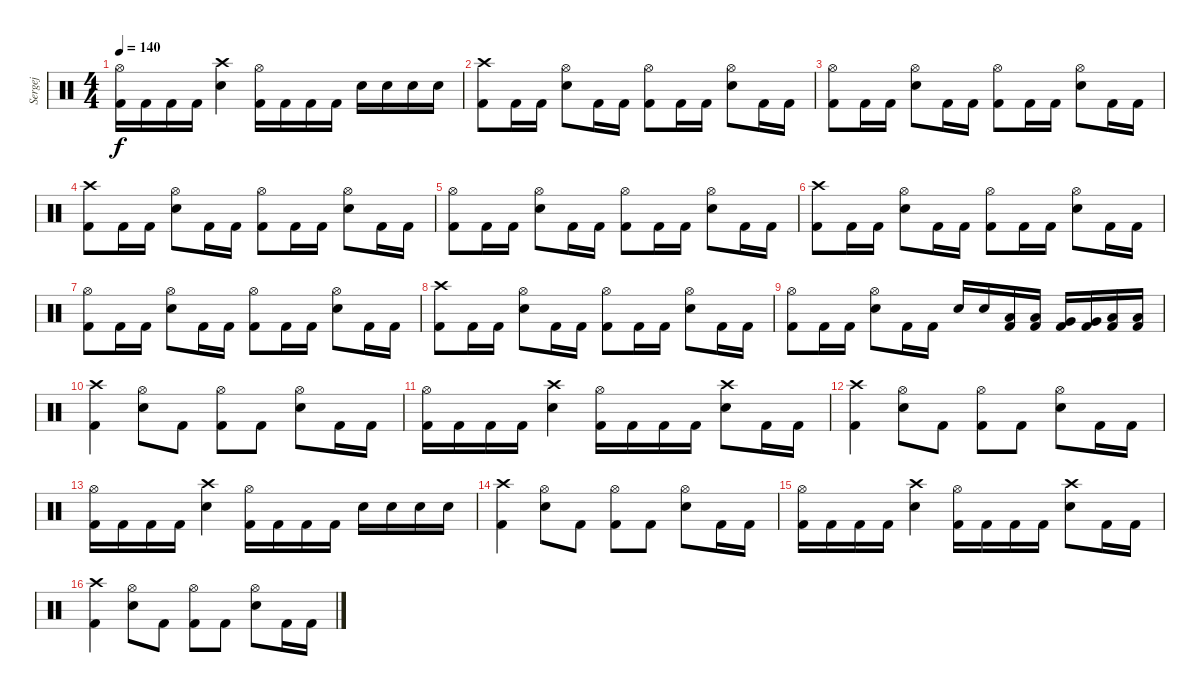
\track ("Sergej" "Sergej") {instrument percussion}
\staff {score}
\articulation defaults
\ts (4 4)
\tempo 140
\clef neutral
\ks c
("Hi-Hat (open)" "Kick (hit) 2").16{dy f} "Kick (hit) 2".16 "Kick (hit) 2".16 "Kick (hit) 2".16 ("Crash high (hit)" "Snare (hit) 2").4 ("Hi-Hat (open)" "Kick (hit) 2").16 "Kick (hit) 2".16 "Kick (hit) 2".16 "Kick (hit) 2".16 "Snare (hit) 2".16 "Snare (hit) 2".16 "Snare (hit) 2".16 "Snare (hit) 2".16 |
("Crash high (hit)" "Kick (hit) 2").8 "Kick (hit) 2".16 "Kick (hit) 2".16 ("Hi-Hat (open)" "Snare (hit) 2").8 "Kick (hit) 2".16 "Kick (hit) 2".16 ("Hi-Hat (open)" "Kick (hit) 2").8 "Kick (hit) 2".16 "Kick (hit) 2".16 ("Hi-Hat (open)" "Snare (hit) 2").8 "Kick (hit) 2".16 "Kick (hit) 2".16 |
("Hi-Hat (open)" "Kick (hit) 2").8 "Kick (hit) 2".16 "Kick (hit) 2".16 ("Hi-Hat (open)" "Snare (hit) 2").8 "Kick (hit) 2".16 "Kick (hit) 2".16 ("Hi-Hat (open)" "Kick (hit) 2").8 "Kick (hit) 2".16 "Kick (hit) 2".16 ("Hi-Hat (open)" "Snare (hit) 2").8 "Kick (hit) 2".16 "Kick (hit) 2".16 |
("Crash high (hit)" "Kick (hit) 2").8 "Kick (hit) 2".16 "Kick (hit) 2".16 ("Hi-Hat (open)" "Snare (hit) 2").8 "Kick (hit) 2".16 "Kick (hit) 2".16 ("Hi-Hat (open)" "Kick (hit) 2").8 "Kick (hit) 2".16 "Kick (hit) 2".16 ("Hi-Hat (open)" "Snare (hit) 2").8 "Kick (hit) 2".16 "Kick (hit) 2".16 |
("Hi-Hat (open)" "Kick (hit) 2").8 "Kick (hit) 2".16 "Kick (hit) 2".16 ("Hi-Hat (open)" "Snare (hit) 2").8 "Kick (hit) 2".16 "Kick (hit) 2".16 ("Hi-Hat (open)" "Kick (hit) 2").8 "Kick (hit) 2".16 "Kick (hit) 2".16 ("Hi-Hat (open)" "Snare (hit) 2").8 "Kick (hit) 2".16 "Kick (hit) 2".16 |
("Crash high (hit)" "Kick (hit) 2").8 "Kick (hit) 2".16 "Kick (hit) 2".16 ("Hi-Hat (open)" "Snare (hit) 2").8 "Kick (hit) 2".16 "Kick (hit) 2".16 ("Hi-Hat (open)" "Kick (hit) 2").8 "Kick (hit) 2".16 "Kick (hit) 2".16 ("Hi-Hat (open)" "Snare (hit) 2").8 "Kick (hit) 2".16 "Kick (hit) 2".16 |
("Hi-Hat (open)" "Kick (hit) 2").8 "Kick (hit) 2".16 "Kick (hit) 2".16 ("Hi-Hat (open)" "Snare (hit) 2").8 "Kick (hit) 2".16 "Kick (hit) 2".16 ("Hi-Hat (open)" "Kick (hit) 2").8 "Kick (hit) 2".16 "Kick (hit) 2".16 ("Hi-Hat (open)" "Snare (hit) 2").8 "Kick (hit) 2".16 "Kick (hit) 2".16 |
("Crash high (hit)" "Kick (hit) 2").8 "Kick (hit) 2".16 "Kick (hit) 2".16 ("Hi-Hat (open)" "Snare (hit) 2").8 "Kick (hit) 2".16 "Kick (hit) 2".16 ("Hi-Hat (open)" "Kick (hit) 2").8 "Kick (hit) 2".16 "Kick (hit) 2".16 ("Hi-Hat (open)" "Snare (hit) 2").8 "Kick (hit) 2".16 "Kick (hit) 2".16 |
("Hi-Hat (open)" "Kick (hit) 2").8 "Kick (hit) 2".16 "Kick (hit) 2".16 ("Hi-Hat (open)" "Snare (hit) 2").8 "Kick (hit) 2".16 "Kick (hit) 2".16 "Snare (hit) 2".16 "Snare (hit) 2".16 ("Kick (hit) 2" "Low Tom (hit)").16 ("Kick (hit) 2" "Low Tom (hit)").16 ("Kick (hit) 2" "Very Low Tom (hit)").16 ("Kick (hit) 2" "Very Low Tom (hit)").16 ("Kick (hit) 2" "Low Floor Tom (hit)").16 ("Kick (hit) 2" "Low Floor Tom (hit)").16 |
("Crash high (hit)" "Kick (hit) 2").4 ("Hi-Hat (open)" "Snare (hit) 2").8 "Kick (hit) 2".8 ("Hi-Hat (open)" "Kick (hit) 2").8 "Kick (hit) 2".8 ("Hi-Hat (open)" "Snare (hit) 2").8 "Kick (hit) 2".16 "Kick (hit) 2".16 |
("Hi-Hat (open)" "Kick (hit) 2").16 "Kick (hit) 2".16 "Kick (hit) 2".16 "Kick (hit) 2".16 ("Crash high (hit)" "Snare (hit) 2").4 ("Hi-Hat (open)" "Kick (hit) 2").16 "Kick (hit) 2".16 "Kick (hit) 2".16 "Kick (hit) 2".16 ("Crash high (hit)" "Snare (hit) 2").8 "Kick (hit) 2".16 "Kick (hit) 2".16 |
("Crash high (hit)" "Kick (hit) 2").4 ("Hi-Hat (open)" "Snare (hit) 2").8 "Kick (hit) 2".8 ("Hi-Hat (open)" "Kick (hit) 2").8 "Kick (hit) 2".8 ("Hi-Hat (open)" "Snare (hit) 2").8 "Kick (hit) 2".16 "Kick (hit) 2".16 |
("Hi-Hat (open)" "Kick (hit) 2").16 "Kick (hit) 2".16 "Kick (hit) 2".16 "Kick (hit) 2".16 ("Crash high (hit)" "Snare (hit) 2").4 ("Hi-Hat (open)" "Kick (hit) 2").16 "Kick (hit) 2".16 "Kick (hit) 2".16 "Kick (hit) 2".16 "Snare (hit) 2".16 "Snare (hit) 2".16 "Snare (hit) 2".16 "Snare (hit) 2".16 |
("Crash high (hit)" "Kick (hit) 2").4 ("Hi-Hat (open)" "Snare (hit) 2").8 "Kick (hit) 2".8 ("Hi-Hat (open)" "Kick (hit) 2").8 "Kick (hit) 2".8 ("Hi-Hat (open)" "Snare (hit) 2").8 "Kick (hit) 2".16 "Kick (hit) 2".16 |
("Hi-Hat (open)" "Kick (hit) 2").16 "Kick (hit) 2".16 "Kick (hit) 2".16 "Kick (hit) 2".16 ("Crash high (hit)" "Snare (hit) 2").4 ("Hi-Hat (open)" "Kick (hit) 2").16 "Kick (hit) 2".16 "Kick (hit) 2".16 "Kick (hit) 2".16 ("Crash high (hit)" "Snare (hit) 2").8 "Kick (hit) 2".16 "Kick (hit) 2".16 |
("Crash high (hit)" "Kick (hit) 2").4 ("Hi-Hat (open)" "Snare (hit) 2").8 "Kick (hit) 2".8 ("Hi-Hat (open)" "Kick (hit) 2").8 "Kick (hit) 2".8 ("Hi-Hat (open)" "Snare (hit) 2").8 "Kick (hit) 2".16 "Kick (hit) 2".16
